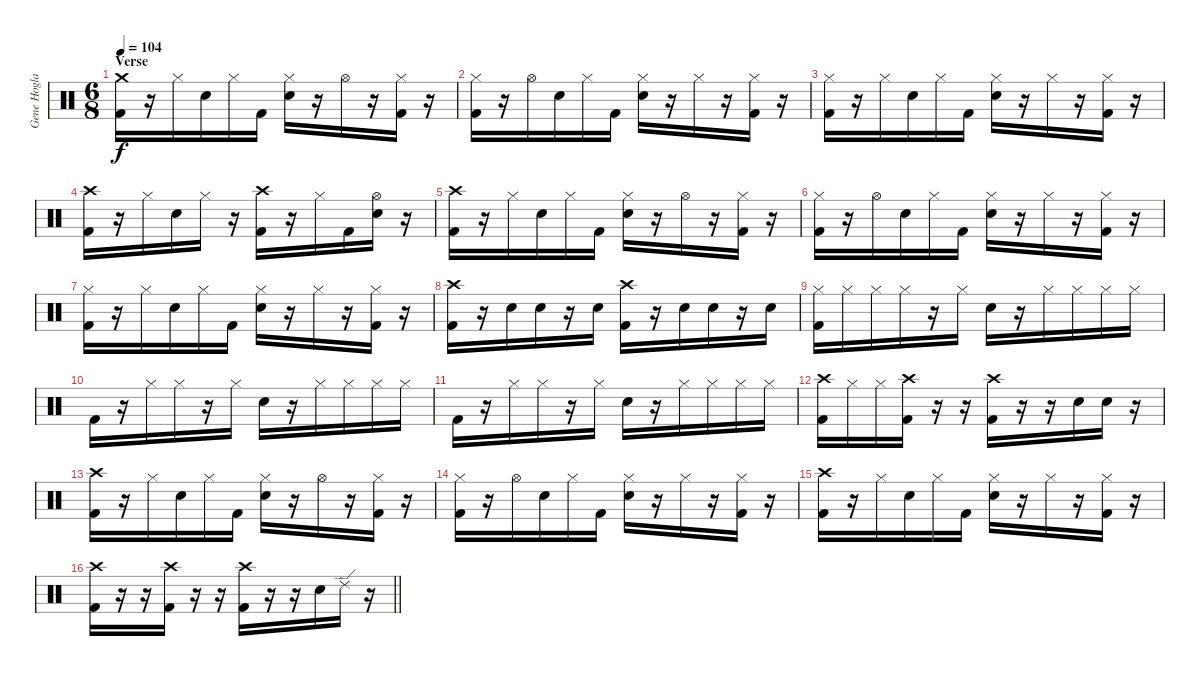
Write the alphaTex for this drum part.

\track ("Gene Hoglan" "Gene Hogla") {instrument percussion}
\staff {score}
\articulation defaults
\ts (6 8)
\section ("" "Verse")
\tempo 104
\clef neutral
\ks c
("Crash medium (hit)" "Kick (hit) 2").16{dy f} r.16 "Hi-Hat (closed)".16 "Snare (hit) 2".16 "Hi-Hat (closed)".16 "Kick (hit) 2".16 ("Hi-Hat (closed)" "Snare (hit) 2").16 r.16 "Hi-Hat (open)".16 r.16 ("Hi-Hat (closed)" "Kick (hit) 2").16 r.16 |
("Hi-Hat (closed)" "Kick (hit) 2").16 r.16 "Hi-Hat (open)".16 "Snare (hit) 2".16 "Hi-Hat (closed)".16 "Kick (hit) 2".16 ("Hi-Hat (closed)" "Snare (hit) 2").16 r.16 "Hi-Hat (closed)".16 r.16 ("Hi-Hat (closed)" "Kick (hit) 2").16 r.16 |
("Hi-Hat (closed)" "Kick (hit) 2").16 r.16 "Hi-Hat (closed)".16 "Snare (hit) 2".16 "Hi-Hat (closed)".16 "Kick (hit) 2".16 ("Hi-Hat (closed)" "Snare (hit) 2").16 r.16 "Hi-Hat (closed)".16 r.16 ("Hi-Hat (closed)" "Kick (hit) 2").16 r.16 |
("Crash high (hit)" "Kick (hit) 2").16 r.16 "Hi-Hat (closed)".16 "Snare (hit) 2".16 "Hi-Hat (closed)".16 r.16 ("Crash high (hit)" "Kick (hit) 2").16 r.16 "Hi-Hat (closed)".16 "Kick (hit) 2".16 ("Hi-Hat (open)" "Snare (hit) 2").16 r.16 |
("Crash high (hit)" "Kick (hit) 2").16 r.16 "Hi-Hat (closed)".16 "Snare (hit) 2".16 "Hi-Hat (closed)".16 "Kick (hit) 2".16 ("Hi-Hat (closed)" "Snare (hit) 2").16 r.16 "Hi-Hat (open)".16 r.16 ("Hi-Hat (closed)" "Kick (hit) 2").16 r.16 |
("Hi-Hat (closed)" "Kick (hit) 2").16 r.16 "Hi-Hat (open)".16 "Snare (hit) 2".16 "Hi-Hat (closed)".16 "Kick (hit) 2".16 ("Hi-Hat (closed)" "Snare (hit) 2").16 r.16 "Hi-Hat (closed)".16 r.16 ("Hi-Hat (closed)" "Kick (hit) 2").16 r.16 |
("Hi-Hat (closed)" "Kick (hit) 2").16 r.16 "Hi-Hat (closed)".16 "Snare (hit) 2".16 "Hi-Hat (closed)".16 "Kick (hit) 2".16 ("Hi-Hat (closed)" "Snare (hit) 2").16 r.16 "Hi-Hat (closed)".16 r.16 ("Hi-Hat (closed)" "Kick (hit) 2").16 r.16 |
("Crash high (hit)" "Kick (hit) 2").16 r.16 "Snare (hit) 2".16 "Snare (hit) 2".16 r.16 "Snare (hit) 2".16 ("Crash high (hit)" "Kick (hit) 2").16 r.16 "Snare (hit) 2".16 "Snare (hit) 2".16 r.16 "Snare (hit) 2".16 |
("Hi-Hat (closed)" "Kick (hit) 2").16 "Hi-Hat (closed)".16 "Hi-Hat (closed)".16 "Hi-Hat (closed)".16 r.16 "Hi-Hat (closed)".16 "Snare (hit) 2".16 r.16 "Hi-Hat (closed)".16 "Hi-Hat (closed)".16 "Hi-Hat (closed)".16 "Hi-Hat (closed)".16 |
"Kick (hit) 2".16 r.16 "Hi-Hat (closed)".16 "Hi-Hat (closed)".16 r.16 "Hi-Hat (closed)".16 "Snare (hit) 2".16 r.16 "Hi-Hat (closed)".16 "Hi-Hat (closed)".16 "Hi-Hat (closed)".16 "Hi-Hat (closed)".16 |
"Kick (hit) 2".16 r.16 "Hi-Hat (closed)".16 "Hi-Hat (closed)".16 r.16 "Hi-Hat (closed)".16 "Snare (hit) 2".16 r.16 "Hi-Hat (closed)".16 "Hi-Hat (closed)".16 "Hi-Hat (closed)".16 "Hi-Hat (closed)".16 |
("Crash high (hit)" "Kick (hit) 2").16 "Hi-Hat (closed)".16 "Hi-Hat (closed)".16 ("Crash high (hit)" "Kick (hit) 2").16 r.16 r.16 ("Crash high (hit)" "Kick (hit) 2").16 r.16 r.16 "Snare (hit) 2".16 "Snare (hit) 2".16 r.16 |
("Crash high (hit)" "Kick (hit) 2").16 r.16 "Hi-Hat (closed)".16 "Snare (hit) 2".16 "Hi-Hat (closed)".16 "Kick (hit) 2".16 ("Hi-Hat (closed)" "Snare (hit) 2").16 r.16 "Hi-Hat (open)".16 r.16 ("Hi-Hat (closed)" "Kick (hit) 2").16 r.16 |
("Hi-Hat (closed)" "Kick (hit) 2").16 r.16 "Hi-Hat (open)".16 "Snare (hit) 2".16 "Hi-Hat (closed)".16 "Kick (hit) 2".16 ("Hi-Hat (closed)" "Snare (hit) 2").16 r.16 "Hi-Hat (closed)".16 r.16 ("Hi-Hat (closed)" "Kick (hit) 2").16 r.16 |
("Crash high (hit)" "Kick (hit) 2").16 r.16 "Hi-Hat (closed)".16 "Snare (hit) 2".16 "Hi-Hat (closed)".16 "Kick (hit) 2".16 ("Hi-Hat (closed)" "Snare (hit) 2").16 r.16 "Hi-Hat (closed)".16 r.16 ("Hi-Hat (closed)" "Kick (hit) 2").16 r.16 |
\barLineRight lightlight
("Crash high (hit)" "Kick (hit) 2").16 r.16 r.16 ("Crash high (hit)" "Kick (hit) 2").16 r.16 r.16 ("Crash high (hit)" "Kick (hit) 2").16 r.16 r.16 "Snare (hit) 2".16 "Ride (edge) 2".16 r.16
